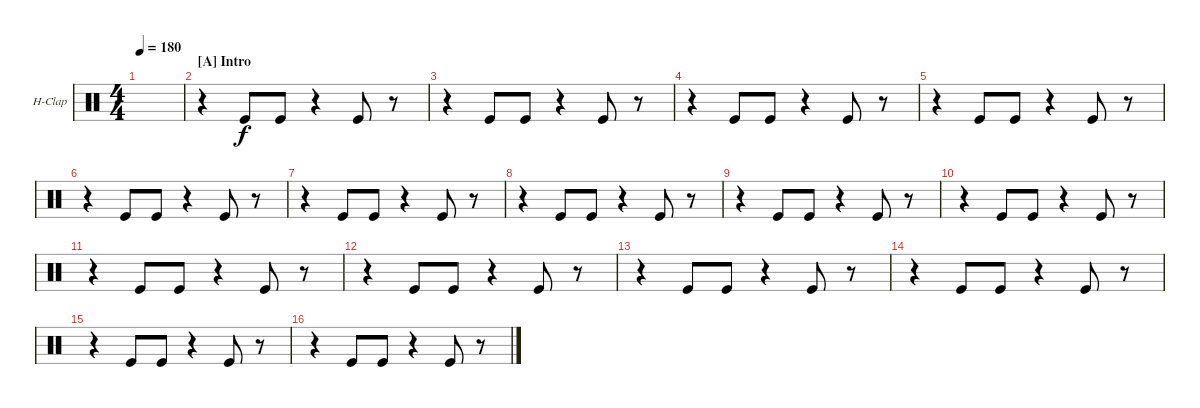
\defaultSystemsLayout 4
\bracketExtendMode groupsimilarinstruments
\firstSystemTrackNameOrientation horizontal
\otherSystemsTrackNameOrientation horizontal
\track ("Hand Clap" "H-Clap") {instrument percussion}
\staff {score}
\articulation defaults
\ts (4 4)
\tempo 180
\clef neutral
\scale
0.474178
\ks c
|
\section ("A" "Intro")
\scale
0.262911 r.4 "Kick (hit)".8 "Kick (hit)".8 r.4 "Kick (hit)".8 r.8 |
\scale
0.262911 r.4 "Kick (hit)".8 "Kick (hit)".8 r.4 "Kick (hit)".8 r.8 |
\scale
0.333333 r.4 "Kick (hit)".8 "Kick (hit)".8 r.4 "Kick (hit)".8 r.8 |
\scale
0.333333 r.4 "Kick (hit)".8 "Kick (hit)".8 r.4 "Kick (hit)".8 r.8 |
\scale
0.333333 r.4 "Kick (hit)".8 "Kick (hit)".8 r.4 "Kick (hit)".8 r.8 |
\scale
0.333333 r.4 "Kick (hit)".8 "Kick (hit)".8 r.4 "Kick (hit)".8 r.8 |
\scale
0.333333 r.4 "Kick (hit)".8 "Kick (hit)".8 r.4 "Kick (hit)".8 r.8 |
\scale
0.333333 r.4 "Kick (hit)".8 "Kick (hit)".8 r.4 "Kick (hit)".8 r.8 |
\scale
0.333333 r.4 "Kick (hit)".8 "Kick (hit)".8 r.4 "Kick (hit)".8 r.8 |
\scale
0.333333 r.4 "Kick (hit)".8 "Kick (hit)".8 r.4 "Kick (hit)".8 r.8 |
\scale
0.333333 r.4 "Kick (hit)".8 "Kick (hit)".8 r.4 "Kick (hit)".8 r.8 |
r.4 "Kick (hit)".8 "Kick (hit)".8 r.4 "Kick (hit)".8 r.8 |
r.4 "Kick (hit)".8 "Kick (hit)".8 r.4 "Kick (hit)".8 r.8 |
r.4 "Kick (hit)".8 "Kick (hit)".8 r.4 "Kick (hit)".8 r.8 |
r.4 "Kick (hit)".8 "Kick (hit)".8 r.4 "Kick (hit)".8 r.8
